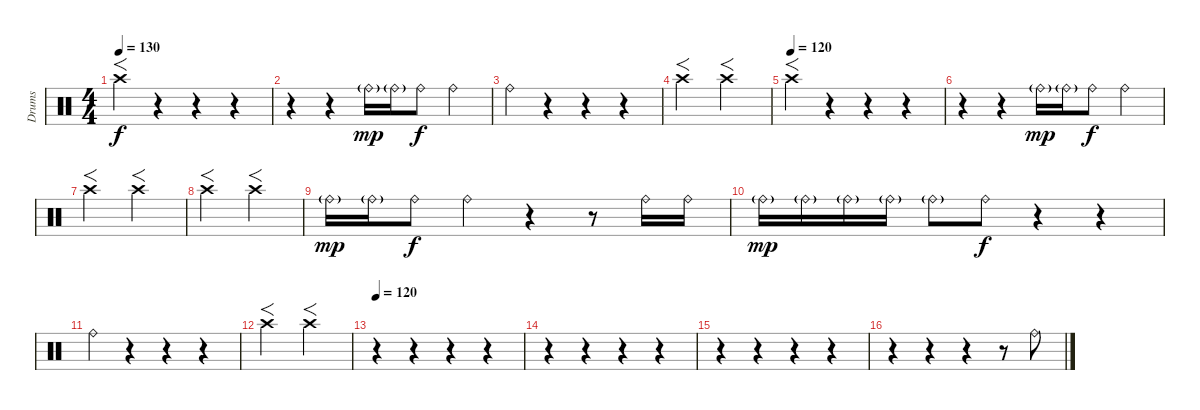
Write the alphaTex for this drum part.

\track ("Drums" "Drums") {instrument percussion}
\staff {score}
\articulation defaults
\ts (4 4)
\tempo 130
\tempo 120
\tempo 130
\clef neutral
\ks c "Crash high (hit)".4{f dy f}
r.4 r.4 r.4 |
r.4 r.4 "Ride (bell)"{g}.16{dy mp} "Ride (bell)"{g}.16 "Ride (bell)".8{dy f} "Ride (bell)".4 |
"Ride (bell)".4 r.4 r.4 r.4 |
"Crash high (hit)".2{f} "Crash high (hit)".2{f} |
\tempo (120)
"Crash high (hit)".4{f} r.4 r.4 r.4 |
r.4 r.4 "Ride (bell)"{g}.16{dy mp} "Ride (bell)"{g}.16 "Ride (bell)".8{dy f} "Ride (bell)".4 |
"Crash high (hit)".2{f} "Crash high (hit)".2{f} |
"Crash high (hit)".2{f} "Crash high (hit)".2{f} |
"Ride (bell)"{g}.16{dy mp} "Ride (bell)"{g}.16 "Ride (bell)".8{dy f} "Ride (bell)".4 r.4 r.8 "Ride (bell)".16 "Ride (bell)".16 |
"Ride (bell)"{g}.16{dy mp} "Ride (bell)"{g}.16 "Ride (bell)"{g}.16 "Ride (bell)"{g}.16 "Ride (bell)"{g}.8 "Ride (bell)".8{dy f} r.4 r.4 |
"Ride (bell)".4 r.4 r.4 r.4 |
"Crash high (hit)".2{f} "Crash high (hit)".2{f} |
\tempo 120
r.4 r.4 r.4 r.4 |
r.4 r.4 r.4 r.4 |
r.4 r.4 r.4 r.4 |
r.4 r.4 r.4 r.8 "Ride (bell)".8
